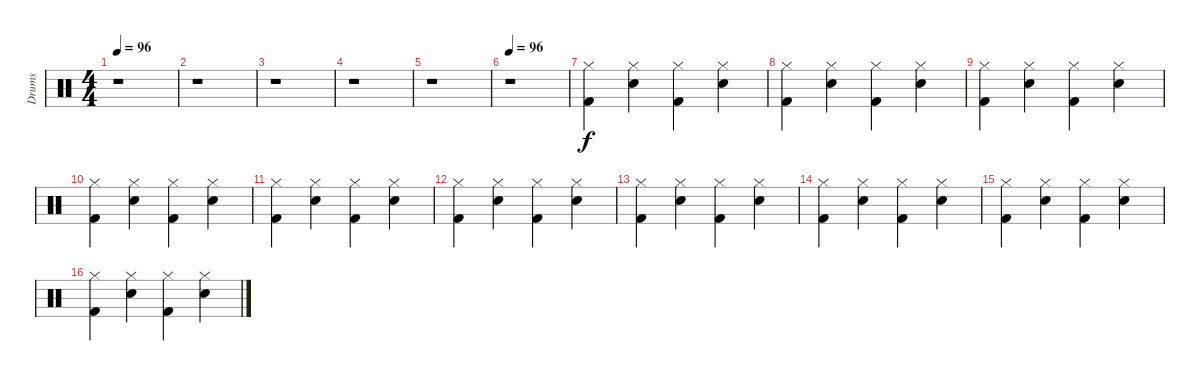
\track ("Drums" "Drums") {instrument percussion}
\staff {score}
\articulation defaults
\ts (4 4)
\tempo 96
\tempo 144
\tempo 96
\clef neutral
\ks c
r.1{dy f} |
r.1 |
r.1 |
r.1 |
r.1 |
\tempo 96
r.1 |
("Hi-Hat (closed)" "Kick (hit) 2").4 ("Hi-Hat (closed)" "Snare (hit) 2").4 ("Hi-Hat (closed)" "Kick (hit) 2").4 ("Hi-Hat (closed)" "Snare (hit) 2").4 |
("Hi-Hat (closed)" "Kick (hit) 2").4 ("Hi-Hat (closed)" "Snare (hit) 2").4 ("Hi-Hat (closed)" "Kick (hit) 2").4 ("Hi-Hat (closed)" "Snare (hit) 2").4 |
("Hi-Hat (closed)" "Kick (hit) 2").4 ("Hi-Hat (closed)" "Snare (hit) 2").4 ("Hi-Hat (closed)" "Kick (hit) 2").4 ("Hi-Hat (closed)" "Snare (hit) 2").4 |
("Hi-Hat (closed)" "Kick (hit) 2").4 ("Hi-Hat (closed)" "Snare (hit) 2").4 ("Hi-Hat (closed)" "Kick (hit) 2").4 ("Hi-Hat (closed)" "Snare (hit) 2").4 |
("Hi-Hat (closed)" "Kick (hit) 2").4 ("Hi-Hat (closed)" "Snare (hit) 2").4 ("Hi-Hat (closed)" "Kick (hit) 2").4 ("Hi-Hat (closed)" "Snare (hit) 2").4 |
("Hi-Hat (closed)" "Kick (hit) 2").4 ("Hi-Hat (closed)" "Snare (hit) 2").4 ("Hi-Hat (closed)" "Kick (hit) 2").4 ("Hi-Hat (closed)" "Snare (hit) 2").4 |
("Hi-Hat (closed)" "Kick (hit) 2").4 ("Hi-Hat (closed)" "Snare (hit) 2").4 ("Hi-Hat (closed)" "Kick (hit) 2").4 ("Hi-Hat (closed)" "Snare (hit) 2").4 |
("Hi-Hat (closed)" "Kick (hit) 2").4 ("Hi-Hat (closed)" "Snare (hit) 2").4 ("Hi-Hat (closed)" "Kick (hit) 2").4 ("Hi-Hat (closed)" "Snare (hit) 2").4 |
("Hi-Hat (closed)" "Kick (hit) 2").4 ("Hi-Hat (closed)" "Snare (hit) 2").4 ("Hi-Hat (closed)" "Kick (hit) 2").4 ("Hi-Hat (closed)" "Snare (hit) 2").4 |
("Hi-Hat (closed)" "Kick (hit) 2").4 ("Hi-Hat (closed)" "Snare (hit) 2").4 ("Hi-Hat (closed)" "Kick (hit) 2").4 ("Hi-Hat (closed)" "Snare (hit) 2").4
